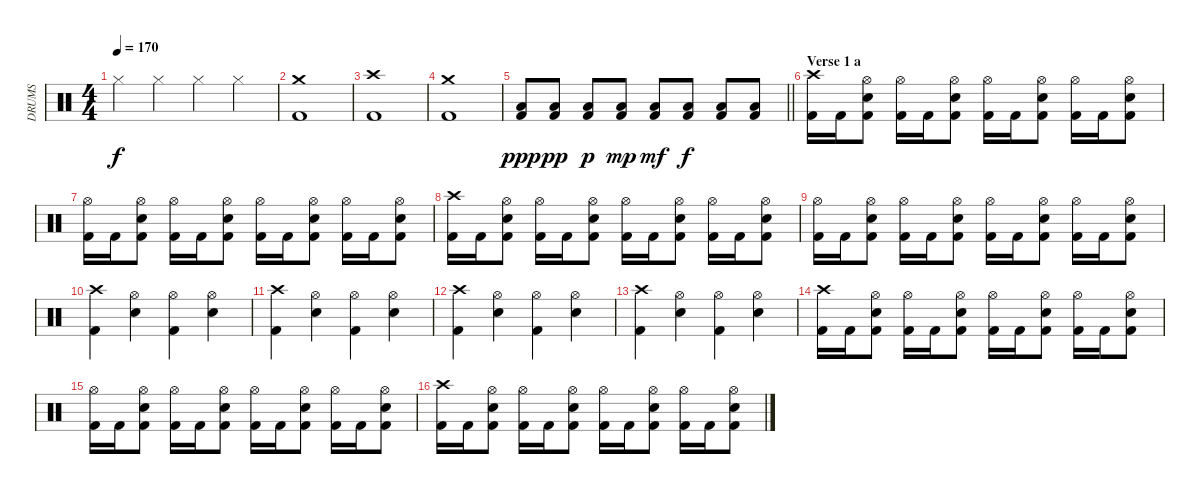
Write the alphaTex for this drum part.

\track ("DRUMS" "DRUMS") {instrument percussion}
\staff {score}
\articulation defaults
\ts (4 4)
\tempo 170
\clef neutral
\ks c "Hi-Hat (closed)".4{dy f} "Hi-Hat (closed)".4 "Hi-Hat (closed)".4 "Hi-Hat (closed)".4
|
("Kick (hit) 2" "Crash medium (hit)").1 |
("Kick (hit) 2" "Crash high (hit)").1 |
("Kick (hit) 2" "Crash medium (hit)").1 |
\barLineRight lightlight
("Kick (hit) 2" "Low Floor Tom (hit)").8{dy ppp} ("Kick (hit) 2" "Low Floor Tom (hit)").8{dy pp} ("Kick (hit) 2" "Low Floor Tom (hit)").8{dy p} ("Kick (hit) 2" "Low Floor Tom (hit)").8{dy mp} ("Kick (hit) 2" "Low Floor Tom (hit)").8{dy mf} ("Kick (hit) 2" "Low Floor Tom (hit)").8{dy f} ("Kick (hit) 2" "Low Floor Tom (hit)").8 ("Kick (hit) 2" "Low Floor Tom (hit)").8 |
\section ("" "Verse 1 a")
("Crash high (hit)" "Kick (hit) 2").16 "Kick (hit) 2".16 ("Hi-Hat (open)" "Snare (hit) 2" "Kick (hit) 2").8 ("Hi-Hat (open)" "Kick (hit) 2").16 "Kick (hit) 2".16 ("Hi-Hat (open)" "Snare (hit) 2" "Kick (hit) 2").8 ("Hi-Hat (open)" "Kick (hit) 2").16 "Kick (hit) 2".16 ("Hi-Hat (open)" "Snare (hit) 2" "Kick (hit) 2").8 ("Hi-Hat (open)" "Kick (hit) 2").16 "Kick (hit) 2".16 ("Hi-Hat (open)" "Snare (hit) 2" "Kick (hit) 2").8 |
("Hi-Hat (open)" "Kick (hit) 2").16 "Kick (hit) 2".16 ("Hi-Hat (open)" "Snare (hit) 2" "Kick (hit) 2").8 ("Hi-Hat (open)" "Kick (hit) 2").16 "Kick (hit) 2".16 ("Hi-Hat (open)" "Snare (hit) 2" "Kick (hit) 2").8 ("Hi-Hat (open)" "Kick (hit) 2").16 "Kick (hit) 2".16 ("Hi-Hat (open)" "Snare (hit) 2" "Kick (hit) 2").8 ("Hi-Hat (open)" "Kick (hit) 2").16 "Kick (hit) 2".16 ("Hi-Hat (open)" "Snare (hit) 2" "Kick (hit) 2").8 |
("Crash high (hit)" "Kick (hit) 2").16 "Kick (hit) 2".16 ("Hi-Hat (open)" "Snare (hit) 2" "Kick (hit) 2").8 ("Hi-Hat (open)" "Kick (hit) 2").16 "Kick (hit) 2".16 ("Hi-Hat (open)" "Snare (hit) 2" "Kick (hit) 2").8 ("Hi-Hat (open)" "Kick (hit) 2").16 "Kick (hit) 2".16 ("Hi-Hat (open)" "Snare (hit) 2" "Kick (hit) 2").8 ("Hi-Hat (open)" "Kick (hit) 2").16 "Kick (hit) 2".16 ("Hi-Hat (open)" "Snare (hit) 2" "Kick (hit) 2").8 |
("Hi-Hat (open)" "Kick (hit) 2").16 "Kick (hit) 2".16 ("Hi-Hat (open)" "Snare (hit) 2" "Kick (hit) 2").8 ("Hi-Hat (open)" "Kick (hit) 2").16 "Kick (hit) 2".16 ("Hi-Hat (open)" "Snare (hit) 2" "Kick (hit) 2").8 ("Hi-Hat (open)" "Kick (hit) 2").16 "Kick (hit) 2".16 ("Hi-Hat (open)" "Snare (hit) 2" "Kick (hit) 2").8 ("Hi-Hat (open)" "Kick (hit) 2").16 "Kick (hit) 2".16 ("Hi-Hat (open)" "Snare (hit) 2" "Kick (hit) 2").8 |
("Crash high (hit)" "Kick (hit) 2").4 ("Snare (hit) 2" "Hi-Hat (open)").4 ("Kick (hit) 2" "Hi-Hat (open)").4 ("Snare (hit) 2" "Hi-Hat (open)").4 |
("Crash high (hit)" "Kick (hit) 2").4 ("Snare (hit) 2" "Hi-Hat (open)").4 ("Kick (hit) 2" "Hi-Hat (open)").4 ("Snare (hit) 2" "Hi-Hat (open)").4 |
("Crash high (hit)" "Kick (hit) 2").4 ("Snare (hit) 2" "Hi-Hat (open)").4 ("Kick (hit) 2" "Hi-Hat (open)").4 ("Snare (hit) 2" "Hi-Hat (open)").4 |
("Crash high (hit)" "Kick (hit) 2").4 ("Snare (hit) 2" "Hi-Hat (open)").4 ("Kick (hit) 2" "Hi-Hat (open)").4 ("Snare (hit) 2" "Hi-Hat (open)").4 |
("Crash high (hit)" "Kick (hit) 2").16 "Kick (hit) 2".16 ("Hi-Hat (open)" "Snare (hit) 2" "Kick (hit) 2").8 ("Hi-Hat (open)" "Kick (hit) 2").16 "Kick (hit) 2".16 ("Hi-Hat (open)" "Snare (hit) 2" "Kick (hit) 2").8 ("Hi-Hat (open)" "Kick (hit) 2").16 "Kick (hit) 2".16 ("Hi-Hat (open)" "Snare (hit) 2" "Kick (hit) 2").8 ("Hi-Hat (open)" "Kick (hit) 2").16 "Kick (hit) 2".16 ("Hi-Hat (open)" "Snare (hit) 2" "Kick (hit) 2").8 |
("Hi-Hat (open)" "Kick (hit) 2").16 "Kick (hit) 2".16 ("Hi-Hat (open)" "Snare (hit) 2" "Kick (hit) 2").8 ("Hi-Hat (open)" "Kick (hit) 2").16 "Kick (hit) 2".16 ("Hi-Hat (open)" "Snare (hit) 2" "Kick (hit) 2").8 ("Hi-Hat (open)" "Kick (hit) 2").16 "Kick (hit) 2".16 ("Hi-Hat (open)" "Snare (hit) 2" "Kick (hit) 2").8 ("Hi-Hat (open)" "Kick (hit) 2").16 "Kick (hit) 2".16 ("Hi-Hat (open)" "Snare (hit) 2" "Kick (hit) 2").8 |
("Crash high (hit)" "Kick (hit) 2").16 "Kick (hit) 2".16 ("Hi-Hat (open)" "Snare (hit) 2" "Kick (hit) 2").8 ("Hi-Hat (open)" "Kick (hit) 2").16 "Kick (hit) 2".16 ("Hi-Hat (open)" "Snare (hit) 2" "Kick (hit) 2").8 ("Hi-Hat (open)" "Kick (hit) 2").16 "Kick (hit) 2".16 ("Hi-Hat (open)" "Snare (hit) 2" "Kick (hit) 2").8 ("Hi-Hat (open)" "Kick (hit) 2").16 "Kick (hit) 2".16 ("Hi-Hat (open)" "Snare (hit) 2" "Kick (hit) 2").8
